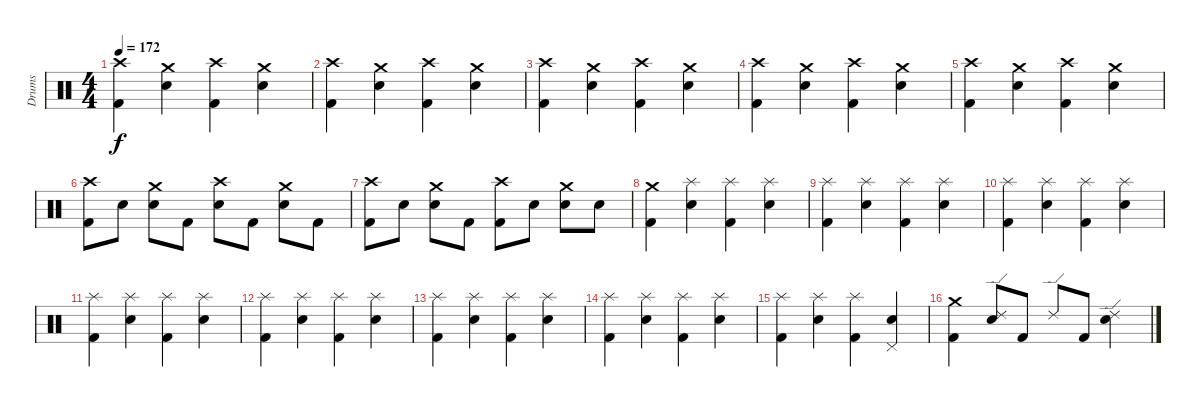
\track ("Drums" "Drums") {instrument percussion}
\staff {score}
\articulation defaults
\ts (4 4)
\tempo 172
\clef neutral
\ks c
("Crash high (hit)" "Kick (hit) 2").4{dy f} ("Crash medium (hit)" "Snare (hit) 2").4 ("Crash high (hit)" "Kick (hit) 2").4 ("Crash medium (hit)" "Snare (hit) 2").4 |
("Crash high (hit)" "Kick (hit) 2").4 ("Crash medium (hit)" "Snare (hit) 2").4 ("Crash high (hit)" "Kick (hit) 2").4 ("Crash medium (hit)" "Snare (hit) 2").4 |
("Crash high (hit)" "Kick (hit) 2").4 ("Crash medium (hit)" "Snare (hit) 2").4 ("Crash high (hit)" "Kick (hit) 2").4 ("Crash medium (hit)" "Snare (hit) 2").4 |
("Crash high (hit)" "Kick (hit) 2").4 ("Crash medium (hit)" "Snare (hit) 2").4 ("Crash high (hit)" "Kick (hit) 2").4 ("Crash medium (hit)" "Snare (hit) 2").4 |
("Crash high (hit)" "Kick (hit) 2").4 ("Crash medium (hit)" "Snare (hit) 2").4 ("Crash high (hit)" "Kick (hit) 2").4 ("Crash medium (hit)" "Snare (hit) 2").4 |
("Crash high (hit)" "Kick (hit) 2").8 "Snare (hit) 2".8 ("Crash medium (hit)" "Snare (hit) 2").8 "Kick (hit) 2".8 ("Crash high (hit)" "Snare (hit) 2").8 "Kick (hit) 2".8 ("Crash medium (hit)" "Snare (hit) 2").8 "Kick (hit) 2".8 |
("Crash high (hit)" "Kick (hit) 2").8 "Snare (hit) 2".8 ("Crash medium (hit)" "Snare (hit) 2").8 "Kick (hit) 2".8 ("Crash high (hit)" "Kick (hit) 2").8 "Snare (hit) 2".8 ("Crash medium (hit)" "Snare (hit) 2").8 "Snare (hit) 2".8 |
("Crash medium (hit)" "Kick (hit) 2").4 ("Snare (hit) 2" "Splash (hit)").4 ("Splash (hit)" "Kick (hit) 2").4 ("Splash (hit)" "Snare (hit) 2").4 |
("Splash (hit)" "Kick (hit) 2").4 ("Splash (hit)" "Snare (hit) 2").4 ("Splash (hit)" "Kick (hit) 2").4 ("Splash (hit)" "Snare (hit) 2").4 |
("Splash (hit)" "Kick (hit) 2").4 ("Splash (hit)" "Snare (hit) 2").4 ("Splash (hit)" "Kick (hit) 2").4 ("Splash (hit)" "Snare (hit) 2").4 |
("Splash (hit)" "Kick (hit) 2").4 ("Splash (hit)" "Snare (hit) 2").4 ("Splash (hit)" "Kick (hit) 2").4 ("Splash (hit)" "Snare (hit) 2").4 |
("Splash (hit)" "Kick (hit) 2").4 ("Splash (hit)" "Snare (hit) 2").4 ("Splash (hit)" "Kick (hit) 2").4 ("Splash (hit)" "Snare (hit) 2").4 |
("Splash (hit)" "Kick (hit) 2").4 ("Splash (hit)" "Snare (hit) 2").4 ("Splash (hit)" "Kick (hit) 2").4 ("Splash (hit)" "Snare (hit) 2").4 |
("Splash (hit)" "Kick (hit) 2").4 ("Splash (hit)" "Snare (hit) 2").4 ("Splash (hit)" "Kick (hit) 2").4 ("Splash (hit)" "Snare (hit) 2").4 |
("Splash (hit)" "Kick (hit) 2").4 ("Splash (hit)" "Snare (hit) 2").4 ("Splash (hit)" "Kick (hit) 2").4 ("Pedal Hi-Hat (hit)" "Snare (hit) 2").4 |
("Kick (hit) 2" "Crash medium (hit)").4 ("Snare (hit) 2" "Ride (edge) 2").8 "Kick (hit) 2".8 "Ride (edge) 2".8 "Kick (hit) 2".8 ("Snare (hit) 2" "Ride (edge) 2").4
